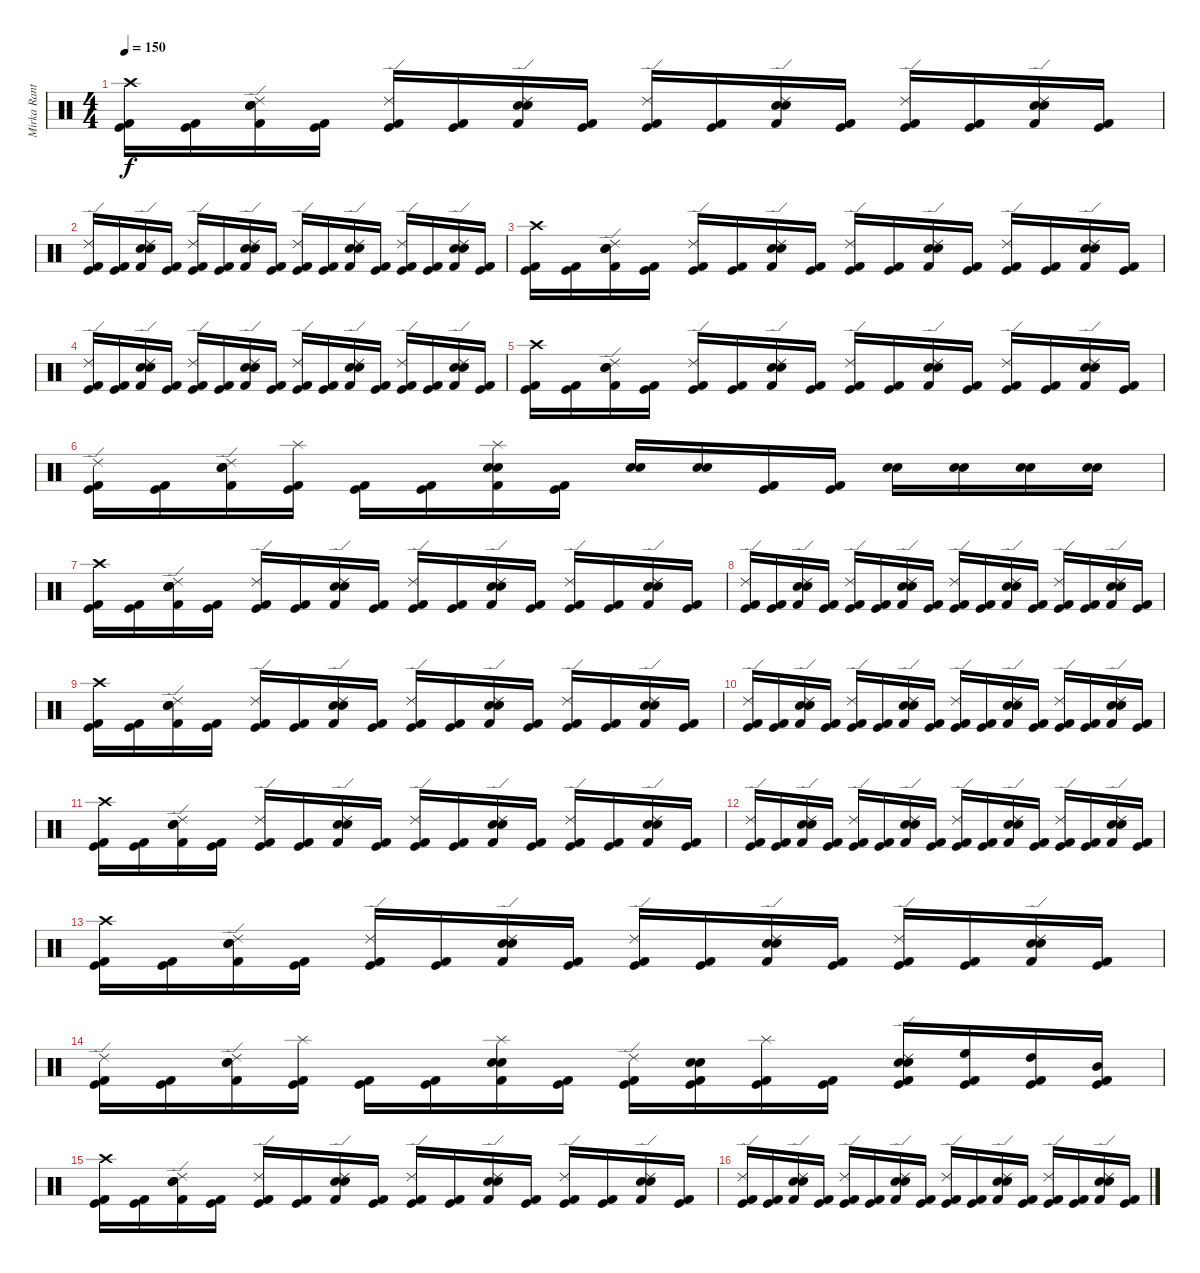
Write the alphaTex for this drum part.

\track ("Mirka Rantanen" "Mirka Rant") {instrument percussion}
\staff {score}
\articulation defaults
\ts (4 4)
\tempo 150
\clef neutral
\ks c
("Crash high (hit)" "Kick (hit)" "Kick (hit) 2").16{dy f} ("Kick (hit)" "Kick (hit) 2").16 ("Ride (edge) 2" "Kick (hit) 2" "Electric Snare (hit)" "Snare (hit) 2").16 ("Kick (hit)" "Kick (hit) 2").16 ("Ride (edge) 2" "Kick (hit)" "Kick (hit) 2").16 ("Kick (hit)" "Kick (hit) 2").16 ("Ride (edge) 2" "Kick (hit) 2" "Electric Snare (hit)" "Snare (hit) 2").16 ("Kick (hit)" "Kick (hit) 2").16 ("Ride (edge) 2" "Kick (hit)" "Kick (hit) 2").16 ("Kick (hit)" "Kick (hit) 2").16 ("Ride (edge) 2" "Kick (hit) 2" "Electric Snare (hit)" "Snare (hit) 2").16 ("Kick (hit)" "Kick (hit) 2").16 ("Ride (edge) 2" "Kick (hit)" "Kick (hit) 2").16 ("Kick (hit)" "Kick (hit) 2").16 ("Ride (edge) 2" "Kick (hit) 2" "Electric Snare (hit)" "Snare (hit) 2").16 ("Kick (hit)" "Kick (hit) 2").16 |
("Ride (edge) 2" "Kick (hit)" "Kick (hit) 2").16 ("Kick (hit)" "Kick (hit) 2").16 ("Ride (edge) 2" "Kick (hit) 2" "Electric Snare (hit)" "Snare (hit) 2").16 ("Kick (hit)" "Kick (hit) 2").16 ("Ride (edge) 2" "Kick (hit)" "Kick (hit) 2").16 ("Kick (hit)" "Kick (hit) 2").16 ("Ride (edge) 2" "Kick (hit) 2" "Electric Snare (hit)" "Snare (hit) 2").16 ("Kick (hit)" "Kick (hit) 2").16 ("Ride (edge) 2" "Kick (hit)" "Kick (hit) 2").16 ("Kick (hit)" "Kick (hit) 2").16 ("Ride (edge) 2" "Kick (hit) 2" "Electric Snare (hit)" "Snare (hit) 2").16 ("Kick (hit)" "Kick (hit) 2").16 ("Ride (edge) 2" "Kick (hit)" "Kick (hit) 2").16 ("Kick (hit)" "Kick (hit) 2").16 ("Ride (edge) 2" "Kick (hit) 2" "Electric Snare (hit)" "Snare (hit) 2").16 ("Kick (hit)" "Kick (hit) 2").16 |
("Crash high (hit)" "Kick (hit)" "Kick (hit) 2").16 ("Kick (hit)" "Kick (hit) 2").16 ("Ride (edge) 2" "Kick (hit) 2" "Electric Snare (hit)" "Snare (hit) 2").16 ("Kick (hit)" "Kick (hit) 2").16 ("Ride (edge) 2" "Kick (hit)" "Kick (hit) 2").16 ("Kick (hit)" "Kick (hit) 2").16 ("Ride (edge) 2" "Kick (hit) 2" "Electric Snare (hit)" "Snare (hit) 2").16 ("Kick (hit)" "Kick (hit) 2").16 ("Ride (edge) 2" "Kick (hit)" "Kick (hit) 2").16 ("Kick (hit)" "Kick (hit) 2").16 ("Ride (edge) 2" "Kick (hit) 2" "Electric Snare (hit)" "Snare (hit) 2").16 ("Kick (hit)" "Kick (hit) 2").16 ("Ride (edge) 2" "Kick (hit)" "Kick (hit) 2").16 ("Kick (hit)" "Kick (hit) 2").16 ("Ride (edge) 2" "Kick (hit) 2" "Electric Snare (hit)" "Snare (hit) 2").16 ("Kick (hit)" "Kick (hit) 2").16 |
("Ride (edge) 2" "Kick (hit)" "Kick (hit) 2").16 ("Kick (hit)" "Kick (hit) 2").16 ("Ride (edge) 2" "Kick (hit) 2" "Electric Snare (hit)" "Snare (hit) 2").16 ("Kick (hit)" "Kick (hit) 2").16 ("Ride (edge) 2" "Kick (hit)" "Kick (hit) 2").16 ("Kick (hit)" "Kick (hit) 2").16 ("Ride (edge) 2" "Kick (hit) 2" "Electric Snare (hit)" "Snare (hit) 2").16 ("Kick (hit)" "Kick (hit) 2").16 ("Ride (edge) 2" "Kick (hit)" "Kick (hit) 2").16 ("Kick (hit)" "Kick (hit) 2").16 ("Ride (edge) 2" "Kick (hit) 2" "Electric Snare (hit)" "Snare (hit) 2").16 ("Kick (hit)" "Kick (hit) 2").16 ("Ride (edge) 2" "Kick (hit)" "Kick (hit) 2").16 ("Kick (hit)" "Kick (hit) 2").16 ("Ride (edge) 2" "Kick (hit) 2" "Electric Snare (hit)" "Snare (hit) 2").16 ("Kick (hit)" "Kick (hit) 2").16 |
("Crash high (hit)" "Kick (hit)" "Kick (hit) 2").16 ("Kick (hit)" "Kick (hit) 2").16 ("Ride (edge) 2" "Kick (hit) 2" "Electric Snare (hit)" "Snare (hit) 2").16 ("Kick (hit)" "Kick (hit) 2").16 ("Ride (edge) 2" "Kick (hit)" "Kick (hit) 2").16 ("Kick (hit)" "Kick (hit) 2").16 ("Ride (edge) 2" "Kick (hit) 2" "Electric Snare (hit)" "Snare (hit) 2").16 ("Kick (hit)" "Kick (hit) 2").16 ("Ride (edge) 2" "Kick (hit)" "Kick (hit) 2").16 ("Kick (hit)" "Kick (hit) 2").16 ("Ride (edge) 2" "Kick (hit) 2" "Electric Snare (hit)" "Snare (hit) 2").16 ("Kick (hit)" "Kick (hit) 2").16 ("Ride (edge) 2" "Kick (hit)" "Kick (hit) 2").16 ("Kick (hit)" "Kick (hit) 2").16 ("Ride (edge) 2" "Kick (hit) 2" "Electric Snare (hit)" "Snare (hit) 2").16 ("Kick (hit)" "Kick (hit) 2").16 |
("Ride (edge) 2" "Kick (hit)" "Kick (hit) 2").16 ("Kick (hit)" "Kick (hit) 2").16 ("Ride (edge) 2" "Kick (hit) 2" "Electric Snare (hit)" "Snare (hit) 2").16 ("Splash (hit)" "Kick (hit)" "Kick (hit) 2").16 ("Kick (hit)" "Kick (hit) 2").16 ("Kick (hit)" "Kick (hit) 2").16 ("Splash (hit)" "Kick (hit) 2" "Electric Snare (hit)" "Snare (hit) 2").16 ("Kick (hit)" "Kick (hit) 2").16 ("Electric Snare (hit)" "Snare (hit) 2").16 ("Electric Snare (hit)" "Snare (hit) 2").16 ("Kick (hit)" "Kick (hit) 2").16 ("Kick (hit)" "Kick (hit) 2").16 ("Electric Snare (hit)" "Snare (hit) 2").16 ("Electric Snare (hit)" "Snare (hit) 2").16 ("Electric Snare (hit)" "Snare (hit) 2").16 ("Electric Snare (hit)" "Snare (hit) 2").16 |
("Crash high (hit)" "Kick (hit)" "Kick (hit) 2").16 ("Kick (hit)" "Kick (hit) 2").16 ("Ride (edge) 2" "Kick (hit) 2" "Electric Snare (hit)" "Snare (hit) 2").16 ("Kick (hit)" "Kick (hit) 2").16 ("Ride (edge) 2" "Kick (hit)" "Kick (hit) 2").16 ("Kick (hit)" "Kick (hit) 2").16 ("Ride (edge) 2" "Kick (hit) 2" "Electric Snare (hit)" "Snare (hit) 2").16 ("Kick (hit)" "Kick (hit) 2").16 ("Ride (edge) 2" "Kick (hit)" "Kick (hit) 2").16 ("Kick (hit)" "Kick (hit) 2").16 ("Ride (edge) 2" "Kick (hit) 2" "Electric Snare (hit)" "Snare (hit) 2").16 ("Kick (hit)" "Kick (hit) 2").16 ("Ride (edge) 2" "Kick (hit)" "Kick (hit) 2").16 ("Kick (hit)" "Kick (hit) 2").16 ("Ride (edge) 2" "Kick (hit) 2" "Electric Snare (hit)" "Snare (hit) 2").16 ("Kick (hit)" "Kick (hit) 2").16 |
("Ride (edge) 2" "Kick (hit)" "Kick (hit) 2").16 ("Kick (hit)" "Kick (hit) 2").16 ("Ride (edge) 2" "Kick (hit) 2" "Electric Snare (hit)" "Snare (hit) 2").16 ("Kick (hit)" "Kick (hit) 2").16 ("Ride (edge) 2" "Kick (hit)" "Kick (hit) 2").16 ("Kick (hit)" "Kick (hit) 2").16 ("Ride (edge) 2" "Kick (hit) 2" "Electric Snare (hit)" "Snare (hit) 2").16 ("Kick (hit)" "Kick (hit) 2").16 ("Ride (edge) 2" "Kick (hit)" "Kick (hit) 2").16 ("Kick (hit)" "Kick (hit) 2").16 ("Ride (edge) 2" "Kick (hit) 2" "Electric Snare (hit)" "Snare (hit) 2").16 ("Kick (hit)" "Kick (hit) 2").16 ("Ride (edge) 2" "Kick (hit)" "Kick (hit) 2").16 ("Kick (hit)" "Kick (hit) 2").16 ("Ride (edge) 2" "Kick (hit) 2" "Electric Snare (hit)" "Snare (hit) 2").16 ("Kick (hit)" "Kick (hit) 2").16 |
("Crash high (hit)" "Kick (hit)" "Kick (hit) 2").16 ("Kick (hit)" "Kick (hit) 2").16 ("Ride (edge) 2" "Kick (hit) 2" "Electric Snare (hit)" "Snare (hit) 2").16 ("Kick (hit)" "Kick (hit) 2").16 ("Ride (edge) 2" "Kick (hit)" "Kick (hit) 2").16 ("Kick (hit)" "Kick (hit) 2").16 ("Ride (edge) 2" "Kick (hit) 2" "Electric Snare (hit)" "Snare (hit) 2").16 ("Kick (hit)" "Kick (hit) 2").16 ("Ride (edge) 2" "Kick (hit)" "Kick (hit) 2").16 ("Kick (hit)" "Kick (hit) 2").16 ("Ride (edge) 2" "Kick (hit) 2" "Electric Snare (hit)" "Snare (hit) 2").16 ("Kick (hit)" "Kick (hit) 2").16 ("Ride (edge) 2" "Kick (hit)" "Kick (hit) 2").16 ("Kick (hit)" "Kick (hit) 2").16 ("Ride (edge) 2" "Kick (hit) 2" "Electric Snare (hit)" "Snare (hit) 2").16 ("Kick (hit)" "Kick (hit) 2").16 |
("Ride (edge) 2" "Kick (hit)" "Kick (hit) 2").16 ("Kick (hit)" "Kick (hit) 2").16 ("Ride (edge) 2" "Kick (hit) 2" "Electric Snare (hit)" "Snare (hit) 2").16 ("Kick (hit)" "Kick (hit) 2").16 ("Ride (edge) 2" "Kick (hit)" "Kick (hit) 2").16 ("Kick (hit)" "Kick (hit) 2").16 ("Ride (edge) 2" "Kick (hit) 2" "Electric Snare (hit)" "Snare (hit) 2").16 ("Kick (hit)" "Kick (hit) 2").16 ("Ride (edge) 2" "Kick (hit)" "Kick (hit) 2").16 ("Kick (hit)" "Kick (hit) 2").16 ("Ride (edge) 2" "Kick (hit) 2" "Electric Snare (hit)" "Snare (hit) 2").16 ("Kick (hit)" "Kick (hit) 2").16 ("Ride (edge) 2" "Kick (hit)" "Kick (hit) 2").16 ("Kick (hit)" "Kick (hit) 2").16 ("Ride (edge) 2" "Kick (hit) 2" "Electric Snare (hit)" "Snare (hit) 2").16 ("Kick (hit)" "Kick (hit) 2").16 |
("Crash high (hit)" "Kick (hit)" "Kick (hit) 2").16 ("Kick (hit)" "Kick (hit) 2").16 ("Ride (edge) 2" "Kick (hit) 2" "Electric Snare (hit)" "Snare (hit) 2").16 ("Kick (hit)" "Kick (hit) 2").16 ("Ride (edge) 2" "Kick (hit)" "Kick (hit) 2").16 ("Kick (hit)" "Kick (hit) 2").16 ("Ride (edge) 2" "Kick (hit) 2" "Electric Snare (hit)" "Snare (hit) 2").16 ("Kick (hit)" "Kick (hit) 2").16 ("Ride (edge) 2" "Kick (hit)" "Kick (hit) 2").16 ("Kick (hit)" "Kick (hit) 2").16 ("Ride (edge) 2" "Kick (hit) 2" "Electric Snare (hit)" "Snare (hit) 2").16 ("Kick (hit)" "Kick (hit) 2").16 ("Ride (edge) 2" "Kick (hit)" "Kick (hit) 2").16 ("Kick (hit)" "Kick (hit) 2").16 ("Ride (edge) 2" "Kick (hit) 2" "Electric Snare (hit)" "Snare (hit) 2").16 ("Kick (hit)" "Kick (hit) 2").16 |
("Ride (edge) 2" "Kick (hit)" "Kick (hit) 2").16 ("Kick (hit)" "Kick (hit) 2").16 ("Ride (edge) 2" "Kick (hit) 2" "Electric Snare (hit)" "Snare (hit) 2").16 ("Kick (hit)" "Kick (hit) 2").16 ("Ride (edge) 2" "Kick (hit)" "Kick (hit) 2").16 ("Kick (hit)" "Kick (hit) 2").16 ("Ride (edge) 2" "Kick (hit) 2" "Electric Snare (hit)" "Snare (hit) 2").16 ("Kick (hit)" "Kick (hit) 2").16 ("Ride (edge) 2" "Kick (hit)" "Kick (hit) 2").16 ("Kick (hit)" "Kick (hit) 2").16 ("Ride (edge) 2" "Kick (hit) 2" "Electric Snare (hit)" "Snare (hit) 2").16 ("Kick (hit)" "Kick (hit) 2").16 ("Ride (edge) 2" "Kick (hit)" "Kick (hit) 2").16 ("Kick (hit)" "Kick (hit) 2").16 ("Ride (edge) 2" "Kick (hit) 2" "Electric Snare (hit)" "Snare (hit) 2").16 ("Kick (hit)" "Kick (hit) 2").16 |
("Crash high (hit)" "Kick (hit)" "Kick (hit) 2").16 ("Kick (hit)" "Kick (hit) 2").16 ("Ride (edge) 2" "Kick (hit) 2" "Electric Snare (hit)" "Snare (hit) 2").16 ("Kick (hit)" "Kick (hit) 2").16 ("Ride (edge) 2" "Kick (hit)" "Kick (hit) 2").16 ("Kick (hit)" "Kick (hit) 2").16 ("Ride (edge) 2" "Kick (hit) 2" "Electric Snare (hit)" "Snare (hit) 2").16 ("Kick (hit)" "Kick (hit) 2").16 ("Ride (edge) 2" "Kick (hit)" "Kick (hit) 2").16 ("Kick (hit)" "Kick (hit) 2").16 ("Ride (edge) 2" "Kick (hit) 2" "Electric Snare (hit)" "Snare (hit) 2").16 ("Kick (hit)" "Kick (hit) 2").16 ("Ride (edge) 2" "Kick (hit)" "Kick (hit) 2").16 ("Kick (hit)" "Kick (hit) 2").16 ("Ride (edge) 2" "Kick (hit) 2" "Electric Snare (hit)" "Snare (hit) 2").16 ("Kick (hit)" "Kick (hit) 2").16 |
("Ride (edge) 2" "Kick (hit)" "Kick (hit) 2").16 ("Kick (hit)" "Kick (hit) 2").16 ("Ride (edge) 2" "Kick (hit) 2" "Electric Snare (hit)" "Snare (hit) 2").16 ("Splash (hit)" "Kick (hit)" "Kick (hit) 2").16 ("Kick (hit)" "Kick (hit) 2").16 ("Kick (hit)" "Kick (hit) 2").16 ("Splash (hit)" "Kick (hit) 2" "Electric Snare (hit)" "Snare (hit) 2").16 ("Kick (hit)" "Kick (hit) 2").16 ("Ride (edge) 2" "Kick (hit)" "Kick (hit) 2").16 ("Kick (hit)" "Kick (hit) 2" "Electric Snare (hit)" "Snare (hit) 2").16 ("Splash (hit)" "Kick (hit)" "Kick (hit) 2").16 ("Kick (hit)" "Kick (hit) 2").16 ("Ride (edge) 2" "Kick (hit)" "Kick (hit) 2" "Electric Snare (hit)" "Snare (hit) 2").16 ("High Floor Tom (hit)" "Kick (hit)" "Kick (hit) 2").16 ("High Tom (hit)" "Kick (hit)" "Kick (hit) 2").16 ("Mid Tom (hit)" "Kick (hit)" "Kick (hit) 2").16 |
("Crash high (hit)" "Kick (hit)" "Kick (hit) 2").16 ("Kick (hit)" "Kick (hit) 2").16 ("Ride (edge) 2" "Kick (hit) 2" "Electric Snare (hit)" "Snare (hit) 2").16 ("Kick (hit)" "Kick (hit) 2").16 ("Ride (edge) 2" "Kick (hit)" "Kick (hit) 2").16 ("Kick (hit)" "Kick (hit) 2").16 ("Ride (edge) 2" "Kick (hit) 2" "Electric Snare (hit)" "Snare (hit) 2").16 ("Kick (hit)" "Kick (hit) 2").16 ("Ride (edge) 2" "Kick (hit)" "Kick (hit) 2").16 ("Kick (hit)" "Kick (hit) 2").16 ("Ride (edge) 2" "Kick (hit) 2" "Electric Snare (hit)" "Snare (hit) 2").16 ("Kick (hit)" "Kick (hit) 2").16 ("Ride (edge) 2" "Kick (hit)" "Kick (hit) 2").16 ("Kick (hit)" "Kick (hit) 2").16 ("Ride (edge) 2" "Kick (hit) 2" "Electric Snare (hit)" "Snare (hit) 2").16 ("Kick (hit)" "Kick (hit) 2").16 |
("Ride (edge) 2" "Kick (hit)" "Kick (hit) 2").16 ("Kick (hit)" "Kick (hit) 2").16 ("Ride (edge) 2" "Kick (hit) 2" "Electric Snare (hit)" "Snare (hit) 2").16 ("Kick (hit)" "Kick (hit) 2").16 ("Ride (edge) 2" "Kick (hit)" "Kick (hit) 2").16 ("Kick (hit)" "Kick (hit) 2").16 ("Ride (edge) 2" "Kick (hit) 2" "Electric Snare (hit)" "Snare (hit) 2").16 ("Kick (hit)" "Kick (hit) 2").16 ("Ride (edge) 2" "Kick (hit)" "Kick (hit) 2").16 ("Kick (hit)" "Kick (hit) 2").16 ("Ride (edge) 2" "Kick (hit) 2" "Electric Snare (hit)" "Snare (hit) 2").16 ("Kick (hit)" "Kick (hit) 2").16 ("Ride (edge) 2" "Kick (hit)" "Kick (hit) 2").16 ("Kick (hit)" "Kick (hit) 2").16 ("Ride (edge) 2" "Kick (hit) 2" "Electric Snare (hit)" "Snare (hit) 2").16 ("Kick (hit)" "Kick (hit) 2").16
